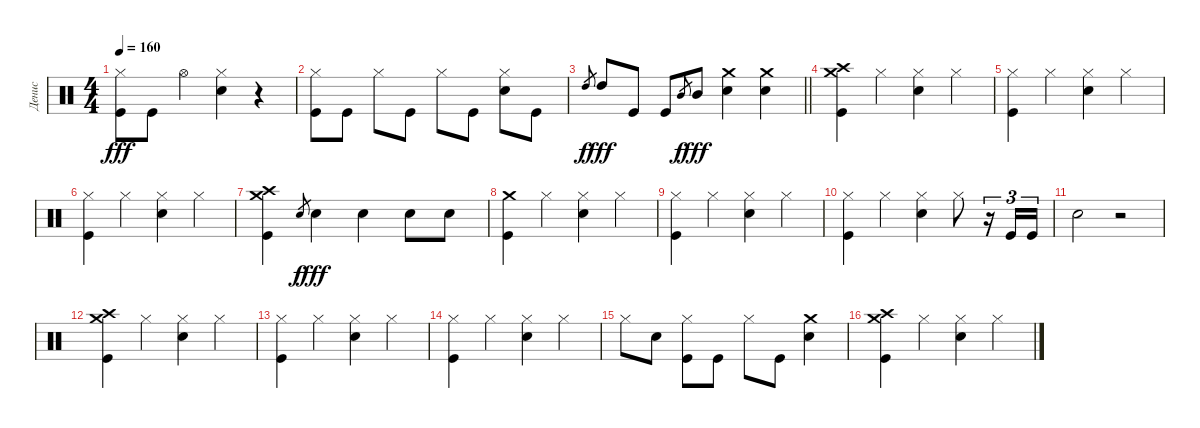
\track ("Денис" "Денис") {instrument percussion}
\staff {score}
\articulation defaults
\ts (4 4)
\tempo 160
\clef neutral
\ks c
("Kick (hit)" "Hi-Hat (closed)").8{dy fff} "Kick (hit)".8 "Hi-Hat (open)".4 ("Electric Snare (hit)" "Hi-Hat (closed)").4 r.4 |
("Kick (hit)" "Hi-Hat (closed)").8 "Kick (hit)".8 "Hi-Hat (closed)".8 "Kick (hit)".8 "Hi-Hat (closed)".8 "Kick (hit)".8 ("Electric Snare (hit)" "Hi-Hat (closed)").8 "Kick (hit)".8 |
\barLineRight lightlight "High Tom (hit)".8{gr dy f} "High Tom (hit)".8{dy fff} "Kick (hit)".8 "Kick (hit)".8 "Mid Tom (hit)".8{gr dy f} "Mid Tom (hit)".8{dy fff}
("Crash medium (hit)" "Electric Snare (hit)").4 ("Electric Snare (hit)" "Crash medium (hit)").4 |
("Kick (hit)" "Crash medium (hit)" "Crash high (hit)").4 "Hi-Hat (closed)".4 ("Electric Snare (hit)" "Hi-Hat (closed)").4 "Hi-Hat (closed)".4 |
("Kick (hit)" "Hi-Hat (closed)").4 "Hi-Hat (closed)".4 ("Electric Snare (hit)" "Hi-Hat (closed)").4 "Hi-Hat (closed)".4 |
("Kick (hit)" "Hi-Hat (closed)").4 "Hi-Hat (closed)".4 ("Electric Snare (hit)" "Hi-Hat (closed)").4 "Hi-Hat (closed)".4 |
("Crash high (hit)" "Crash medium (hit)" "Kick (hit)").4 "Electric Snare (hit)".8{gr dy f} "Electric Snare (hit)".4{dy fff} "Electric Snare (hit)".4 "Electric Snare (hit)".8 "Electric Snare (hit)".8 |
("Kick (hit)" "Crash medium (hit)").4 "Hi-Hat (closed)".4 ("Electric Snare (hit)" "Hi-Hat (closed)").4 "Hi-Hat (closed)".4 |
("Kick (hit)" "Hi-Hat (closed)").4 "Hi-Hat (closed)".4 ("Electric Snare (hit)" "Hi-Hat (closed)").4 "Hi-Hat (closed)".4 |
("Kick (hit)" "Hi-Hat (closed)").4 "Hi-Hat (closed)".4 ("Electric Snare (hit)" "Hi-Hat (closed)").4 "Hi-Hat (closed)".8 r.16{tu (3 2)} "Kick (hit)".16{tu (3 2)} "Kick (hit)".16{tu (3 2)} |
"Electric Snare (hit)".2 r.2 |
("Kick (hit)" "Crash high (hit)" "Crash medium (hit)").4 "Hi-Hat (closed)".4 ("Electric Snare (hit)" "Hi-Hat (closed)").4 "Hi-Hat (closed)".4 |
("Kick (hit)" "Hi-Hat (closed)").4 "Hi-Hat (closed)".4 ("Electric Snare (hit)" "Hi-Hat (closed)").4 "Hi-Hat (closed)".4 |
("Kick (hit)" "Hi-Hat (closed)").4 "Hi-Hat (closed)".4 ("Electric Snare (hit)" "Hi-Hat (closed)").4 "Hi-Hat (closed)".4 |
"Hi-Hat (closed)".8 "Electric Snare (hit)".8 ("Kick (hit)" "Hi-Hat (closed)").8 "Kick (hit)".8 "Hi-Hat (closed)".8 "Kick (hit)".8 ("Electric Snare (hit)" "Crash medium (hit)").4 |
("Kick (hit)" "Crash medium (hit)" "Crash high (hit)").4 "Hi-Hat (closed)".4 ("Electric Snare (hit)" "Hi-Hat (closed)").4 "Hi-Hat (closed)".4
